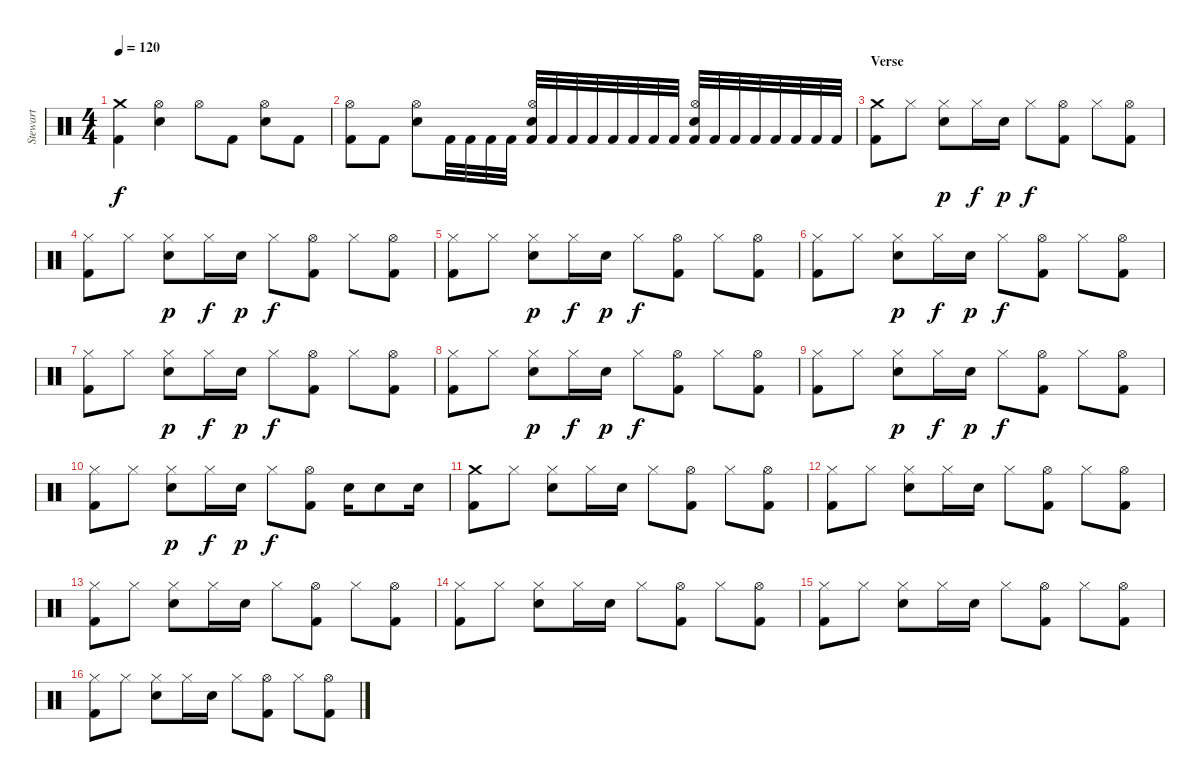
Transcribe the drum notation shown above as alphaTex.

\track ("Stewart" "Stewart") {instrument percussion}
\staff {score}
\articulation defaults
\ts (4 4)
\tempo 120
\clef neutral
\ks c
("Crash medium (hit)" "Kick (hit) 2").4{dy f} ("Hi-Hat (open)" "Electric Snare (hit)").4 "Hi-Hat (open)".8 "Kick (hit) 2".8 ("Hi-Hat (open)" "Electric Snare (hit)").8 "Kick (hit) 2".8 |
("Hi-Hat (open)" "Kick (hit) 2").8 "Kick (hit) 2".8 ("Hi-Hat (open)" "Electric Snare (hit)").8 "Kick (hit) 2".32 "Kick (hit) 2".32 "Kick (hit) 2".32 "Kick (hit) 2".32 ("Hi-Hat (open)" "Electric Snare (hit)" "Kick (hit) 2").32 "Kick (hit) 2".32 "Kick (hit) 2".32 "Kick (hit) 2".32 "Kick (hit) 2".32 "Kick (hit) 2".32 "Kick (hit) 2".32 "Kick (hit) 2".32 ("Hi-Hat (open)" "Electric Snare (hit)" "Kick (hit) 2").32 "Kick (hit) 2".32 "Kick (hit) 2".32 "Kick (hit) 2".32 "Kick (hit) 2".32 "Kick (hit) 2".32 "Kick (hit) 2".32 "Kick (hit) 2".32 |
\section ("" "Verse")
("Crash medium (hit)" "Kick (hit) 2").8 "Hi-Hat (closed)".8 ("Hi-Hat (closed)" "Electric Snare (hit)").8{dy p} "Hi-Hat (closed)".16{dy f} "Electric Snare (hit)".16{dy p} "Hi-Hat (closed)".8{dy f} ("Hi-Hat (open)" "Kick (hit) 2").8 "Hi-Hat (closed)".8 ("Hi-Hat (open)" "Kick (hit) 2").8 |
("Hi-Hat (closed)" "Kick (hit) 2").8 "Hi-Hat (closed)".8 ("Hi-Hat (closed)" "Electric Snare (hit)").8{dy p} "Hi-Hat (closed)".16{dy f} "Electric Snare (hit)".16{dy p} "Hi-Hat (closed)".8{dy f} ("Hi-Hat (open)" "Kick (hit) 2").8 "Hi-Hat (closed)".8 ("Hi-Hat (open)" "Kick (hit) 2").8 |
("Hi-Hat (closed)" "Kick (hit) 2").8 "Hi-Hat (closed)".8 ("Hi-Hat (closed)" "Electric Snare (hit)").8{dy p} "Hi-Hat (closed)".16{dy f} "Electric Snare (hit)".16{dy p} "Hi-Hat (closed)".8{dy f} ("Hi-Hat (open)" "Kick (hit) 2").8 "Hi-Hat (closed)".8 ("Hi-Hat (open)" "Kick (hit) 2").8 |
("Hi-Hat (closed)" "Kick (hit) 2").8 "Hi-Hat (closed)".8 ("Hi-Hat (closed)" "Electric Snare (hit)").8{dy p} "Hi-Hat (closed)".16{dy f} "Electric Snare (hit)".16{dy p} "Hi-Hat (closed)".8{dy f} ("Hi-Hat (open)" "Kick (hit) 2").8 "Hi-Hat (closed)".8 ("Hi-Hat (open)" "Kick (hit) 2").8 |
("Hi-Hat (closed)" "Kick (hit) 2").8 "Hi-Hat (closed)".8 ("Hi-Hat (closed)" "Electric Snare (hit)").8{dy p} "Hi-Hat (closed)".16{dy f} "Electric Snare (hit)".16{dy p} "Hi-Hat (closed)".8{dy f} ("Hi-Hat (open)" "Kick (hit) 2").8 "Hi-Hat (closed)".8 ("Hi-Hat (open)" "Kick (hit) 2").8 |
("Hi-Hat (closed)" "Kick (hit) 2").8 "Hi-Hat (closed)".8 ("Hi-Hat (closed)" "Electric Snare (hit)").8{dy p} "Hi-Hat (closed)".16{dy f} "Electric Snare (hit)".16{dy p} "Hi-Hat (closed)".8{dy f} ("Hi-Hat (open)" "Kick (hit) 2").8 "Hi-Hat (closed)".8 ("Hi-Hat (open)" "Kick (hit) 2").8 |
("Hi-Hat (closed)" "Kick (hit) 2").8 "Hi-Hat (closed)".8 ("Hi-Hat (closed)" "Electric Snare (hit)").8{dy p} "Hi-Hat (closed)".16{dy f} "Electric Snare (hit)".16{dy p} "Hi-Hat (closed)".8{dy f} ("Hi-Hat (open)" "Kick (hit) 2").8 "Hi-Hat (closed)".8 ("Hi-Hat (open)" "Kick (hit) 2").8 |
("Hi-Hat (closed)" "Kick (hit) 2").8 "Hi-Hat (closed)".8 ("Hi-Hat (closed)" "Electric Snare (hit)").8{dy p} "Hi-Hat (closed)".16{dy f} "Electric Snare (hit)".16{dy p} "Hi-Hat (closed)".8{dy f} ("Hi-Hat (open)" "Kick (hit) 2").8 "Electric Snare (hit)".16 "Electric Snare (hit)".8 "Electric Snare (hit)".16 |
("Crash medium (hit)" "Kick (hit) 2").8 "Hi-Hat (closed)".8 ("Hi-Hat (closed)" "Electric Snare (hit)").8 "Hi-Hat (closed)".16 "Electric Snare (hit)".16 "Hi-Hat (closed)".8 ("Hi-Hat (open)" "Kick (hit) 2").8 "Hi-Hat (closed)".8 ("Hi-Hat (open)" "Kick (hit) 2").8 |
("Hi-Hat (closed)" "Kick (hit) 2").8 "Hi-Hat (closed)".8 ("Hi-Hat (closed)" "Electric Snare (hit)").8 "Hi-Hat (closed)".16 "Electric Snare (hit)".16 "Hi-Hat (closed)".8 ("Hi-Hat (open)" "Kick (hit) 2").8 "Hi-Hat (closed)".8 ("Hi-Hat (open)" "Kick (hit) 2").8 |
("Hi-Hat (closed)" "Kick (hit) 2").8 "Hi-Hat (closed)".8 ("Hi-Hat (closed)" "Electric Snare (hit)").8 "Hi-Hat (closed)".16 "Electric Snare (hit)".16 "Hi-Hat (closed)".8 ("Hi-Hat (open)" "Kick (hit) 2").8 "Hi-Hat (closed)".8 ("Hi-Hat (open)" "Kick (hit) 2").8 |
("Hi-Hat (closed)" "Kick (hit) 2").8 "Hi-Hat (closed)".8 ("Hi-Hat (closed)" "Electric Snare (hit)").8 "Hi-Hat (closed)".16 "Electric Snare (hit)".16 "Hi-Hat (closed)".8 ("Hi-Hat (open)" "Kick (hit) 2").8 "Hi-Hat (closed)".8 ("Hi-Hat (open)" "Kick (hit) 2").8 |
("Hi-Hat (closed)" "Kick (hit) 2").8 "Hi-Hat (closed)".8 ("Hi-Hat (closed)" "Electric Snare (hit)").8 "Hi-Hat (closed)".16 "Electric Snare (hit)".16 "Hi-Hat (closed)".8 ("Hi-Hat (open)" "Kick (hit) 2").8 "Hi-Hat (closed)".8 ("Hi-Hat (open)" "Kick (hit) 2").8 |
("Hi-Hat (closed)" "Kick (hit) 2").8 "Hi-Hat (closed)".8 ("Hi-Hat (closed)" "Electric Snare (hit)").8 "Hi-Hat (closed)".16 "Electric Snare (hit)".16 "Hi-Hat (closed)".8 ("Hi-Hat (open)" "Kick (hit) 2").8 "Hi-Hat (closed)".8 ("Hi-Hat (open)" "Kick (hit) 2").8
